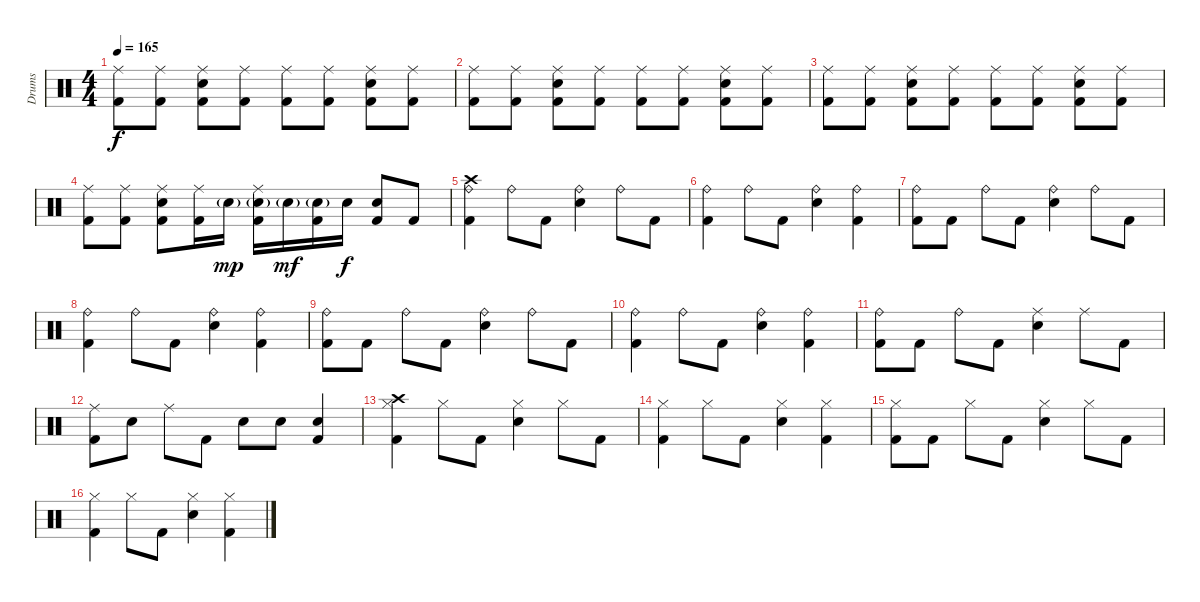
\track ("Drums" "Drums") {instrument percussion}
\staff {score}
\articulation defaults
\ts (4 4)
\tempo 165
\clef neutral
\ks c
("Ride (middle)" "Kick (hit) 2").8{dy f} ("Ride (middle)" "Kick (hit) 2").8 ("Ride (middle)" "Electric Snare (hit)" "Kick (hit) 2").8 ("Ride (middle)" "Kick (hit) 2").8 ("Ride (middle)" "Kick (hit) 2").8 ("Ride (middle)" "Kick (hit) 2").8 ("Ride (middle)" "Electric Snare (hit)" "Kick (hit) 2").8 ("Ride (middle)" "Kick (hit) 2").8 |
("Ride (middle)" "Kick (hit) 2").8 ("Ride (middle)" "Kick (hit) 2").8 ("Ride (middle)" "Electric Snare (hit)" "Kick (hit) 2").8 ("Ride (middle)" "Kick (hit) 2").8 ("Ride (middle)" "Kick (hit) 2").8 ("Ride (middle)" "Kick (hit) 2").8 ("Ride (middle)" "Electric Snare (hit)" "Kick (hit) 2").8 ("Ride (middle)" "Kick (hit) 2").8 |
("Ride (middle)" "Kick (hit) 2").8 ("Ride (middle)" "Kick (hit) 2").8 ("Ride (middle)" "Electric Snare (hit)" "Kick (hit) 2").8 ("Ride (middle)" "Kick (hit) 2").8 ("Ride (middle)" "Kick (hit) 2").8 ("Ride (middle)" "Kick (hit) 2").8 ("Ride (middle)" "Electric Snare (hit)" "Kick (hit) 2").8 ("Ride (middle)" "Kick (hit) 2").8 |
("Ride (middle)" "Kick (hit) 2").8 ("Ride (middle)" "Kick (hit) 2").8 ("Ride (middle)" "Electric Snare (hit)" "Kick (hit) 2").8 ("Ride (middle)" "Kick (hit) 2").16 "Electric Snare (hit)"{g}.16{dy mp} ("Ride (middle)" "Electric Snare (hit)"{g} "Kick (hit) 2").16 "Electric Snare (hit)"{g}.16{dy mf} ("Electric Snare (hit)"{g} "Kick (hit) 2").16 "Electric Snare (hit)".16{dy f} ("Electric Snare (hit)" "Kick (hit) 2").8 "Kick (hit) 2".8 |
("Crash high (hit)" "Ride (bell)" "Kick (hit) 2").4 "Ride (bell)".8 "Kick (hit) 2".8 ("Ride (bell)" "Electric Snare (hit)").4 "Ride (bell)".8 "Kick (hit) 2".8 |
("Ride (bell)" "Kick (hit) 2").4 "Ride (bell)".8 "Kick (hit) 2".8 ("Ride (bell)" "Electric Snare (hit)").4 ("Ride (bell)" "Kick (hit) 2").4 |
("Ride (bell)" "Kick (hit) 2").8 "Kick (hit) 2".8 "Ride (bell)".8 "Kick (hit) 2".8 ("Ride (bell)" "Electric Snare (hit)").4 "Ride (bell)".8 "Kick (hit) 2".8 |
("Ride (bell)" "Kick (hit) 2").4 "Ride (bell)".8 "Kick (hit) 2".8 ("Ride (bell)" "Electric Snare (hit)").4 ("Ride (bell)" "Kick (hit) 2").4 |
("Ride (bell)" "Kick (hit) 2").8 "Kick (hit) 2".8 "Ride (bell)".8 "Kick (hit) 2".8 ("Ride (bell)" "Electric Snare (hit)").4 "Ride (bell)".8 "Kick (hit) 2".8 |
("Ride (bell)" "Kick (hit) 2").4 "Ride (bell)".8 "Kick (hit) 2".8 ("Ride (bell)" "Electric Snare (hit)").4 ("Ride (bell)" "Kick (hit) 2").4 |
("Ride (bell)" "Kick (hit) 2").8 "Kick (hit) 2".8 "Ride (bell)".8 "Kick (hit) 2".8 ("Ride (middle)" "Electric Snare (hit)").4 "Ride (middle)".8 "Kick (hit) 2".8 |
("Ride (middle)" "Kick (hit) 2").8 "Electric Snare (hit)".8 "Ride (middle)".8 "Kick (hit) 2".8 "Electric Snare (hit)".8 "Electric Snare (hit)".8 ("Electric Snare (hit)" "Kick (hit) 2").4 |
("Crash high (hit)" "Hi-Hat (closed)" "Kick (hit) 2").4 "Hi-Hat (closed)".8 "Kick (hit) 2".8 ("Hi-Hat (closed)" "Electric Snare (hit)").4 "Hi-Hat (closed)".8 "Kick (hit) 2".8 |
("Hi-Hat (closed)" "Kick (hit) 2").4 "Hi-Hat (closed)".8 "Kick (hit) 2".8 ("Hi-Hat (closed)" "Electric Snare (hit)").4 ("Hi-Hat (closed)" "Kick (hit) 2").4 |
("Hi-Hat (closed)" "Kick (hit) 2").8 "Kick (hit) 2".8 "Hi-Hat (closed)".8 "Kick (hit) 2".8 ("Hi-Hat (closed)" "Electric Snare (hit)").4 "Hi-Hat (closed)".8 "Kick (hit) 2".8 |
("Hi-Hat (closed)" "Kick (hit) 2").4 "Hi-Hat (closed)".8 "Kick (hit) 2".8 ("Hi-Hat (closed)" "Electric Snare (hit)").4 ("Hi-Hat (closed)" "Kick (hit) 2").4
